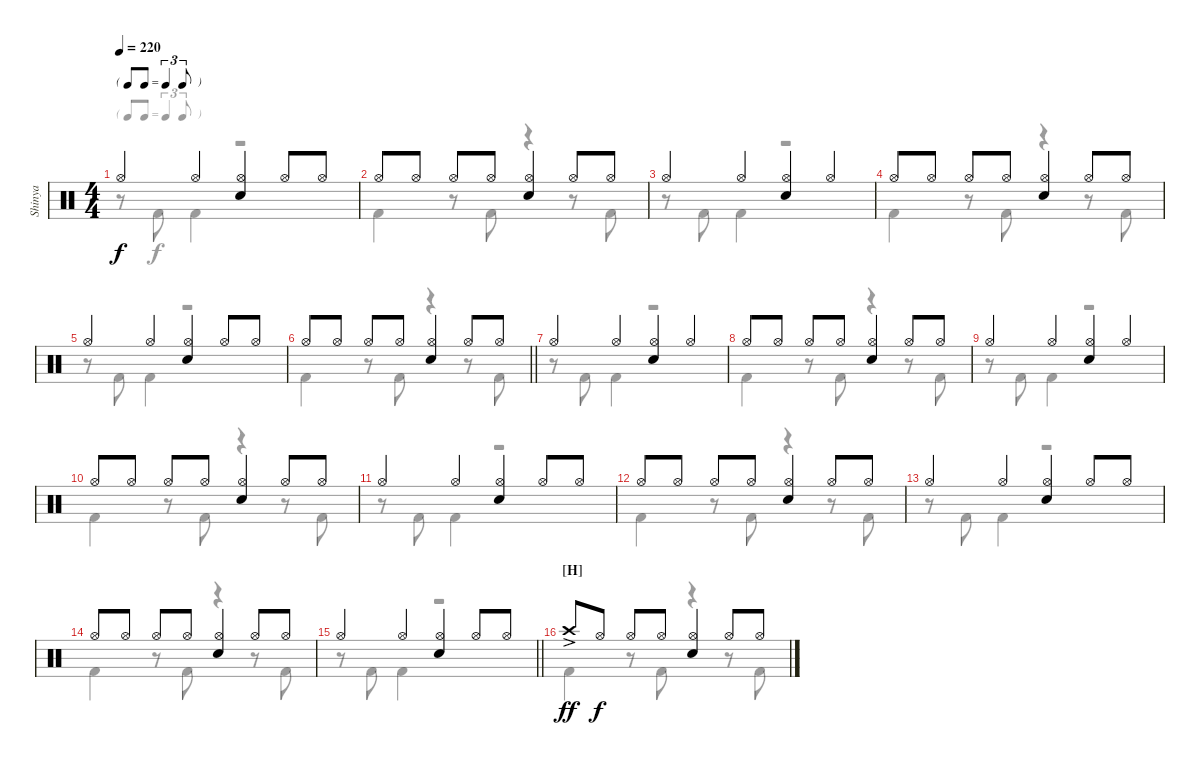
\track ("Shinya" "Shinya") {instrument percussion}
\staff {score}
\articulation defaults
\voice
\ts (4 4)
\tf triplet8th
\tempo 220
\clef neutral
\ks c "Hi-Hat (open)".4{dy f} "Hi-Hat (open)".4
("Hi-Hat (open)" "Snare (hit) 2").4 "Hi-Hat (open)".8 "Hi-Hat (open)".8 |
"Hi-Hat (open)".8 "Hi-Hat (open)".8 "Hi-Hat (open)".8 "Hi-Hat (open)".8 ("Hi-Hat (open)" "Snare (hit) 2").4 "Hi-Hat (open)".8 "Hi-Hat (open)".8 |
"Hi-Hat (open)".4 "Hi-Hat (open)".4 ("Hi-Hat (open)" "Snare (hit) 2").4 "Hi-Hat (open)".4 |
"Hi-Hat (open)".8 "Hi-Hat (open)".8 "Hi-Hat (open)".8 "Hi-Hat (open)".8 ("Hi-Hat (open)" "Snare (hit) 2").4 "Hi-Hat (open)".8 "Hi-Hat (open)".8 |
"Hi-Hat (open)".4 "Hi-Hat (open)".4 ("Hi-Hat (open)" "Snare (hit) 2").4 "Hi-Hat (open)".8 "Hi-Hat (open)".8 |
\barLineRight lightlight "Hi-Hat (open)".8 "Hi-Hat (open)".8 "Hi-Hat (open)".8 "Hi-Hat (open)".8
("Hi-Hat (open)" "Snare (hit) 2").4 "Hi-Hat (open)".8 "Hi-Hat (open)".8 |
"Hi-Hat (open)".4 "Hi-Hat (open)".4 ("Hi-Hat (open)" "Snare (hit) 2").4 "Hi-Hat (open)".4 |
"Hi-Hat (open)".8 "Hi-Hat (open)".8 "Hi-Hat (open)".8 "Hi-Hat (open)".8 ("Hi-Hat (open)" "Snare (hit) 2").4 "Hi-Hat (open)".8 "Hi-Hat (open)".8 |
"Hi-Hat (open)".4 "Hi-Hat (open)".4 ("Hi-Hat (open)" "Snare (hit) 2").4 "Hi-Hat (open)".4 |
"Hi-Hat (open)".8 "Hi-Hat (open)".8 "Hi-Hat (open)".8 "Hi-Hat (open)".8 ("Hi-Hat (open)" "Snare (hit) 2").4 "Hi-Hat (open)".8 "Hi-Hat (open)".8 |
"Hi-Hat (open)".4 "Hi-Hat (open)".4 ("Hi-Hat (open)" "Snare (hit) 2").4 "Hi-Hat (open)".8 "Hi-Hat (open)".8 |
"Hi-Hat (open)".8 "Hi-Hat (open)".8 "Hi-Hat (open)".8 "Hi-Hat (open)".8 ("Hi-Hat (open)" "Snare (hit) 2").4 "Hi-Hat (open)".8 "Hi-Hat (open)".8 |
"Hi-Hat (open)".4 "Hi-Hat (open)".4 ("Hi-Hat (open)" "Snare (hit) 2").4 "Hi-Hat (open)".8 "Hi-Hat (open)".8 |
"Hi-Hat (open)".8 "Hi-Hat (open)".8 "Hi-Hat (open)".8 "Hi-Hat (open)".8 ("Hi-Hat (open)" "Snare (hit) 2").4 "Hi-Hat (open)".8 "Hi-Hat (open)".8 |
\barLineRight lightlight "Hi-Hat (open)".4 "Hi-Hat (open)".4
("Hi-Hat (open)" "Snare (hit) 2").4 "Hi-Hat (open)".8 "Hi-Hat (open)".8 |
\section ("" "[H]")
"Crash high (hit)"{ac}.8{dy ff} "Hi-Hat (open)".8{dy f} "Hi-Hat (open)".8 "Hi-Hat (open)".8 ("Hi-Hat (open)" "Snare (hit) 2").4 "Hi-Hat (open)".8 "Hi-Hat (open)".8
\voice
\clef neutral
\ottava regular
\simile none
\ks c
r.8{dy f} "Kick (hit) 2".8 "Kick (hit) 2".4 r.2 |
"Kick (hit) 2".4 r.8 "Kick (hit) 2".8 r.4 r.8 "Kick (hit) 2".8 |
r.8 "Kick (hit) 2".8 "Kick (hit) 2".4 r.2 |
"Kick (hit) 2".4 r.8 "Kick (hit) 2".8 r.4 r.8 "Kick (hit) 2".8 |
r.8 "Kick (hit) 2".8 "Kick (hit) 2".4 r.2 |
\barLineRight lightlight "Kick (hit) 2".4
r.8 "Kick (hit) 2".8 r.4 r.8 "Kick (hit) 2".8 |
r.8 "Kick (hit) 2".8 "Kick (hit) 2".4 r.2 |
"Kick (hit) 2".4 r.8 "Kick (hit) 2".8 r.4 r.8 "Kick (hit) 2".8 |
r.8 "Kick (hit) 2".8 "Kick (hit) 2".4 r.2 |
"Kick (hit) 2".4 r.8 "Kick (hit) 2".8 r.4 r.8 "Kick (hit) 2".8 |
r.8 "Kick (hit) 2".8 "Kick (hit) 2".4 r.2 |
"Kick (hit) 2".4 r.8 "Kick (hit) 2".8 r.4 r.8 "Kick (hit) 2".8 |
r.8 "Kick (hit) 2".8 "Kick (hit) 2".4 r.2 |
"Kick (hit) 2".4 r.8 "Kick (hit) 2".8 r.4 r.8 "Kick (hit) 2".8 |
\barLineRight lightlight
r.8 "Kick (hit) 2".8 "Kick (hit) 2".4 r.2 |
"Kick (hit) 2".4 r.8 "Kick (hit) 2".8 r.4 r.8 "Kick (hit) 2".8
